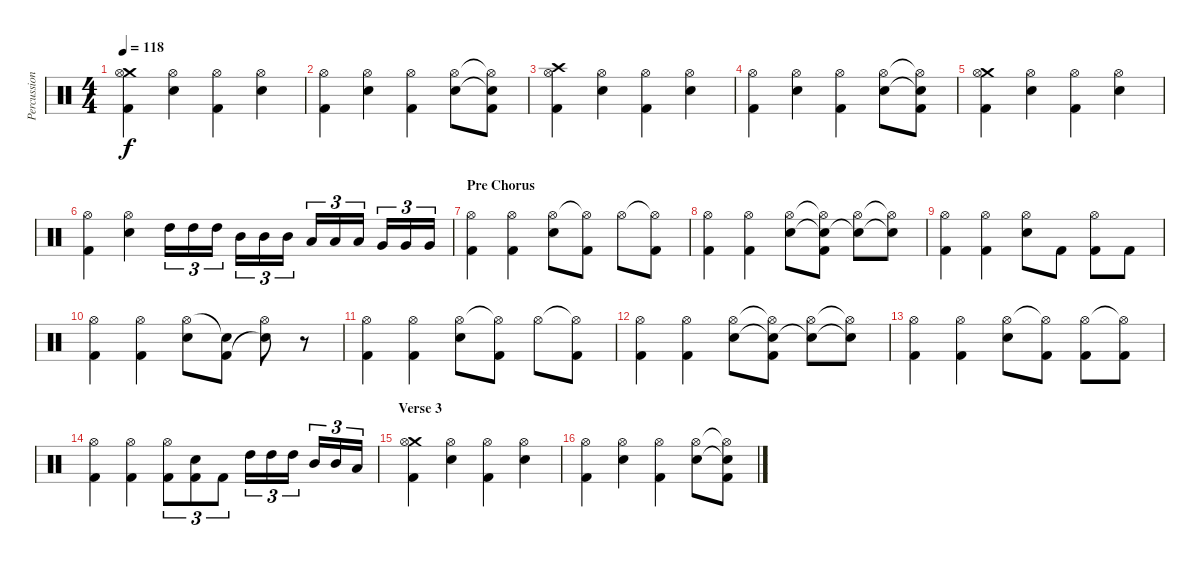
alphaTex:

\track ("Percussion" "Percussion") {instrument percussion}
\staff {score}
\articulation defaults
\ts (4 4)
\tempo 118
\clef neutral
\ks c
("Crash medium (hit)" "Hi-Hat (open)" "Kick (hit) 2").4{dy f} ("Hi-Hat (open)" "Electric Snare (hit)").4 ("Hi-Hat (open)" "Kick (hit) 2").4 ("Hi-Hat (open)" "Electric Snare (hit)").4 |
("Hi-Hat (open)" "Kick (hit) 2").4 ("Hi-Hat (open)" "Electric Snare (hit)").4 ("Hi-Hat (open)" "Kick (hit) 2").4 ("Hi-Hat (open)" "Electric Snare (hit)").8 ("Hi-Hat (open)"{t} "Electric Snare (hit)"{t} "Kick (hit) 2").8 |
("Crash high (hit)" "Hi-Hat (open)" "Kick (hit) 2").4 ("Hi-Hat (open)" "Electric Snare (hit)").4 ("Hi-Hat (open)" "Kick (hit) 2").4 ("Hi-Hat (open)" "Electric Snare (hit)").4 |
("Hi-Hat (open)" "Kick (hit) 2").4 ("Hi-Hat (open)" "Electric Snare (hit)").4 ("Hi-Hat (open)" "Kick (hit) 2").4 ("Hi-Hat (open)" "Electric Snare (hit)").8 ("Hi-Hat (open)"{t} "Electric Snare (hit)"{t} "Kick (hit) 2").8 |
("Crash medium (hit)" "Hi-Hat (open)" "Kick (hit) 2").4 ("Hi-Hat (open)" "Electric Snare (hit)").4 ("Hi-Hat (open)" "Kick (hit) 2").4 ("Hi-Hat (open)" "Electric Snare (hit)").4 |
("Hi-Hat (open)" "Kick (hit) 2").4 ("Hi-Hat (open)" "Electric Snare (hit)").4 "High Tom (hit)".16{tu (3 2)} "High Tom (hit)".16{tu (3 2)} "High Tom (hit)".16{tu (3 2)} "Mid Tom (hit)".16{tu (3 2)} "Mid Tom (hit)".16{tu (3 2)} "Mid Tom (hit)".16{tu (3 2)} "Low Tom (hit)".16{tu (3 2)} "Low Tom (hit)".16{tu (3 2)} "Low Tom (hit)".16{tu (3 2)} "Very Low Tom (hit)".16{tu (3 2)} "Very Low Tom (hit)".16{tu (3 2)} "Very Low Tom (hit)".16{tu (3 2)} |
\section ("" "Pre Chorus")
("Hi-Hat (open)" "Kick (hit) 2").4 ("Hi-Hat (open)" "Kick (hit) 2").4 ("Hi-Hat (open)" "Electric Snare (hit)").8 ("Hi-Hat (open)"{t} "Kick (hit) 2").8 "Hi-Hat (open)".8 ("Hi-Hat (open)"{t} "Kick (hit) 2").8 |
("Hi-Hat (open)" "Kick (hit) 2").4 ("Hi-Hat (open)" "Kick (hit) 2").4 ("Hi-Hat (open)" "Electric Snare (hit)").8 ("Hi-Hat (open)"{t} "Electric Snare (hit)"{t} "Kick (hit) 2").8 ("Hi-Hat (open)" "Electric Snare (hit)"{t}).8 ("Hi-Hat (open)"{t} "Electric Snare (hit)"{t}).8 |
("Hi-Hat (open)" "Kick (hit) 2").4 ("Hi-Hat (open)" "Kick (hit) 2").4 ("Hi-Hat (open)" "Electric Snare (hit)").8 "Kick (hit) 2".8 ("Hi-Hat (open)" "Kick (hit) 2").8 "Kick (hit) 2".8 |
("Hi-Hat (open)" "Kick (hit) 2").4 ("Hi-Hat (open)" "Kick (hit) 2").4 ("Hi-Hat (open)" "Electric Snare (hit)").8 ("Electric Snare (hit)"{t} "Kick (hit) 2").8 ("Hi-Hat (open)" "Electric Snare (hit)"{t}).8 r.8 |
("Hi-Hat (open)" "Kick (hit) 2").4 ("Hi-Hat (open)" "Kick (hit) 2").4 ("Hi-Hat (open)" "Electric Snare (hit)").8 ("Hi-Hat (open)"{t} "Kick (hit) 2").8 "Hi-Hat (open)".8 ("Hi-Hat (open)"{t} "Kick (hit) 2").8 |
("Hi-Hat (open)" "Kick (hit) 2").4 ("Hi-Hat (open)" "Kick (hit) 2").4 ("Hi-Hat (open)" "Electric Snare (hit)").8 ("Hi-Hat (open)"{t} "Electric Snare (hit)"{t} "Kick (hit) 2").8 ("Hi-Hat (open)" "Electric Snare (hit)"{t}).8 ("Hi-Hat (open)"{t} "Electric Snare (hit)"{t}).8 |
("Hi-Hat (open)" "Kick (hit) 2").4 ("Hi-Hat (open)" "Kick (hit) 2").4 ("Hi-Hat (open)" "Electric Snare (hit)").8 ("Hi-Hat (open)"{t} "Kick (hit) 2").8 ("Hi-Hat (open)" "Kick (hit) 2").8 ("Hi-Hat (open)"{t} "Kick (hit) 2").8 |
("Hi-Hat (open)" "Kick (hit) 2").4 ("Hi-Hat (open)" "Kick (hit) 2").4 ("Hi-Hat (open)" "Kick (hit) 2").8{tu (3 2)} ("Electric Snare (hit)" "Kick (hit) 2").8{tu (3 2)} "Kick (hit) 2".8{tu (3 2)} "High Tom (hit)".16{tu (3 2)} "High Tom (hit)".16{tu (3 2)} "High Tom (hit)".16{tu (3 2)} "Mid Tom (hit)".16{tu (3 2)} "Mid Tom (hit)".16{tu (3 2)} "Low Tom (hit)".16{tu (3 2)} |
\section ("" "Verse 3")
("Crash medium (hit)" "Hi-Hat (open)" "Kick (hit) 2").4 ("Hi-Hat (open)" "Electric Snare (hit)").4 ("Hi-Hat (open)" "Kick (hit) 2").4 ("Hi-Hat (open)" "Electric Snare (hit)").4 |
("Hi-Hat (open)" "Kick (hit) 2").4 ("Hi-Hat (open)" "Electric Snare (hit)").4 ("Hi-Hat (open)" "Kick (hit) 2").4 ("Hi-Hat (open)" "Electric Snare (hit)").8 ("Hi-Hat (open)"{t} "Electric Snare (hit)"{t} "Kick (hit) 2").8
